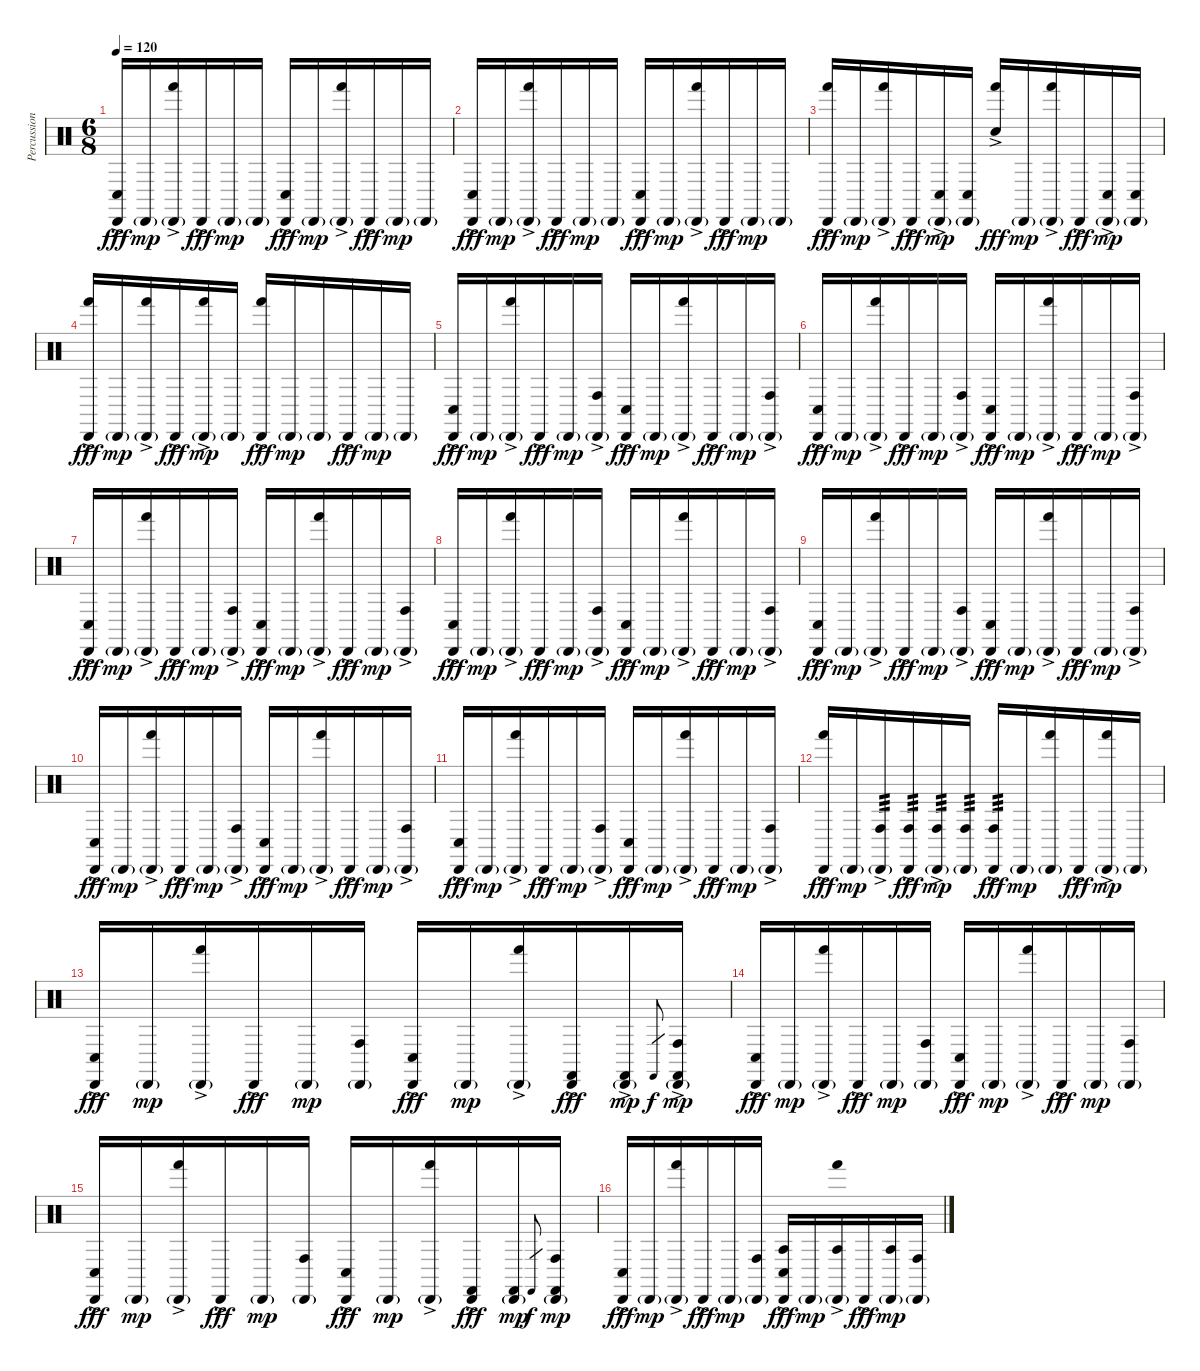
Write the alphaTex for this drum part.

\track ("Percussion" "Percussion") {instrument percussion}
\staff {score}
\articulation defaults
\ts (6 8)
\tempo 120
\clef neutral
\ks c
("Conga low (hit)"{ac} "Cabasa (hit)"{ac}).16{dy fff} "Cabasa (hit)"{g}.16{dy mp} ("Hand (hit)"{ac} "Cabasa (hit)"{g}).16 "Cabasa (hit)"{ac}.16{dy fff} "Cabasa (hit)"{g}.16{dy mp} "Cabasa (hit)"{g}.16 ("Conga low (hit)"{ac} "Cabasa (hit)"{ac}).16{dy fff} "Cabasa (hit)"{g}.16{dy mp} ("Hand (hit)"{ac} "Cabasa (hit)"{g}).16 "Cabasa (hit)"{ac}.16{dy fff} "Cabasa (hit)"{g}.16{dy mp} "Cabasa (hit)"{g}.16 |
("Conga low (hit)"{ac} "Cabasa (hit)"{ac}).16{dy fff} "Cabasa (hit)"{g}.16{dy mp} ("Hand (hit)"{ac} "Cabasa (hit)"{g}).16 "Cabasa (hit)"{ac}.16{dy fff} "Cabasa (hit)"{g}.16{dy mp} "Cabasa (hit)"{g}.16 ("Conga low (hit)"{ac} "Cabasa (hit)"{ac}).16{dy fff} "Cabasa (hit)"{g}.16{dy mp} ("Hand (hit)"{ac} "Cabasa (hit)"{g}).16 "Cabasa (hit)"{ac}.16{dy fff} "Cabasa (hit)"{g}.16{dy mp} "Cabasa (hit)"{g}.16 |
("Hand (hit)"{ac} "Cabasa (hit)"{ac}).16{dy fff} "Cabasa (hit)"{g}.16{dy mp} ("Hand (hit)"{ac} "Cabasa (hit)"{g}).16 "Cabasa (hit)"{ac}.16{dy fff} ("Conga low (hit)"{ac} "Cabasa (hit)"{g}).16{dy mp} ("Conga low (hit)" "Cabasa (hit)"{g}).16 ("Hand (hit)"{ac} "Snare (hit)"{ac}).16{dy fff} "Cabasa (hit)"{g}.16{dy mp} ("Hand (hit)"{ac} "Cabasa (hit)"{g}).16 "Cabasa (hit)"{ac}.16{dy fff} ("Conga low (hit)"{ac} "Cabasa (hit)"{g}).16{dy mp} ("Conga low (hit)" "Cabasa (hit)"{g}).16 |
("Hand (hit)"{ac} "Cabasa (hit)"{ac}).16{dy fff} "Cabasa (hit)"{g}.16{dy mp} ("Hand (hit)"{ac} "Cabasa (hit)"{g}).16 "Cabasa (hit)"{ac}.16{dy fff} ("Hand (hit)"{ac} "Cabasa (hit)"{g}).16{dy mp} "Cabasa (hit)"{g}.16 ("Hand (hit)"{ac} "Cabasa (hit)"{ac}).16{dy fff} "Cabasa (hit)"{g}.16{dy mp} "Cabasa (hit)"{g}.16 "Cabasa (hit)"{ac}.16{dy fff} "Cabasa (hit)"{g}.16{dy mp} "Cabasa (hit)"{g}.16 |
("Conga low (hit)"{ac} "Cabasa (hit)"{ac}).16{dy fff} "Cabasa (hit)"{g}.16{dy mp} ("Hand (hit)"{ac} "Cabasa (hit)"{g}).16 "Cabasa (hit)"{ac}.16{dy fff} "Cabasa (hit)"{g}.16{dy mp} ("Conga high (hit)"{ac} "Cabasa (hit)"{g}).16 ("Conga low (hit)"{ac} "Cabasa (hit)"{ac}).16{dy fff} "Cabasa (hit)"{g}.16{dy mp} ("Hand (hit)"{ac} "Cabasa (hit)"{g}).16 "Cabasa (hit)"{ac}.16{dy fff} "Cabasa (hit)"{g}.16{dy mp} ("Conga high (hit)"{ac} "Cabasa (hit)"{g}).16 |
("Conga low (hit)"{ac} "Cabasa (hit)"{ac}).16{dy fff} "Cabasa (hit)"{g}.16{dy mp} ("Hand (hit)"{ac} "Cabasa (hit)"{g}).16 "Cabasa (hit)"{ac}.16{dy fff} "Cabasa (hit)"{g}.16{dy mp} ("Conga high (hit)"{ac} "Cabasa (hit)"{g}).16 ("Conga low (hit)"{ac} "Cabasa (hit)"{ac}).16{dy fff} "Cabasa (hit)"{g}.16{dy mp} ("Hand (hit)"{ac} "Cabasa (hit)"{g}).16 "Cabasa (hit)"{ac}.16{dy fff} "Cabasa (hit)"{g}.16{dy mp} ("Conga high (hit)"{ac} "Cabasa (hit)"{g}).16 |
("Conga low (hit)"{ac} "Cabasa (hit)"{ac}).16{dy fff} "Cabasa (hit)"{g}.16{dy mp} ("Hand (hit)"{ac} "Cabasa (hit)"{g}).16 "Cabasa (hit)"{ac}.16{dy fff} "Cabasa (hit)"{g}.16{dy mp} ("Conga high (hit)"{ac} "Cabasa (hit)"{g}).16 ("Conga low (hit)"{ac} "Cabasa (hit)"{ac}).16{dy fff} "Cabasa (hit)"{g}.16{dy mp} ("Hand (hit)"{ac} "Cabasa (hit)"{g}).16 "Cabasa (hit)"{ac}.16{dy fff} "Cabasa (hit)"{g}.16{dy mp} ("Conga high (hit)"{ac} "Cabasa (hit)"{g}).16 |
("Conga low (hit)"{ac} "Cabasa (hit)"{ac}).16{dy fff} "Cabasa (hit)"{g}.16{dy mp} ("Hand (hit)"{ac} "Cabasa (hit)"{g}).16 "Cabasa (hit)"{ac}.16{dy fff} "Cabasa (hit)"{g}.16{dy mp} ("Conga high (hit)"{ac} "Cabasa (hit)"{g}).16 ("Conga low (hit)"{ac} "Cabasa (hit)"{ac}).16{dy fff} "Cabasa (hit)"{g}.16{dy mp} ("Hand (hit)"{ac} "Cabasa (hit)"{g}).16 "Cabasa (hit)"{ac}.16{dy fff} "Cabasa (hit)"{g}.16{dy mp} ("Conga high (hit)"{ac} "Cabasa (hit)"{g}).16 |
("Conga low (hit)"{ac} "Cabasa (hit)"{ac}).16{dy fff} "Cabasa (hit)"{g}.16{dy mp} ("Hand (hit)"{ac} "Cabasa (hit)"{g}).16 "Cabasa (hit)"{ac}.16{dy fff} "Cabasa (hit)"{g}.16{dy mp} ("Conga high (hit)"{ac} "Cabasa (hit)"{g}).16 ("Conga low (hit)"{ac} "Cabasa (hit)"{ac}).16{dy fff} "Cabasa (hit)"{g}.16{dy mp} ("Hand (hit)"{ac} "Cabasa (hit)"{g}).16 "Cabasa (hit)"{ac}.16{dy fff} "Cabasa (hit)"{g}.16{dy mp} ("Conga high (hit)"{ac} "Cabasa (hit)"{g}).16 |
("Conga low (hit)"{ac} "Cabasa (hit)"{ac}).16{dy fff} "Cabasa (hit)"{g}.16{dy mp} ("Hand (hit)"{ac} "Cabasa (hit)"{g}).16 "Cabasa (hit)"{ac}.16{dy fff} "Cabasa (hit)"{g}.16{dy mp} ("Conga high (hit)"{ac} "Cabasa (hit)"{g}).16 ("Conga low (hit)"{ac} "Cabasa (hit)"{ac}).16{dy fff} "Cabasa (hit)"{g}.16{dy mp} ("Hand (hit)"{ac} "Cabasa (hit)"{g}).16 "Cabasa (hit)"{ac}.16{dy fff} "Cabasa (hit)"{g}.16{dy mp} ("Conga high (hit)"{ac} "Cabasa (hit)"{g}).16 |
("Conga low (hit)"{ac} "Cabasa (hit)"{ac}).16{dy fff} "Cabasa (hit)"{g}.16{dy mp} ("Hand (hit)"{ac} "Cabasa (hit)"{g}).16 "Cabasa (hit)"{ac}.16{dy fff} "Cabasa (hit)"{g}.16{dy mp} ("Conga high (hit)"{ac} "Cabasa (hit)"{g}).16 ("Conga low (hit)"{ac} "Cabasa (hit)"{ac}).16{dy fff} "Cabasa (hit)"{g}.16{dy mp} ("Hand (hit)"{ac} "Cabasa (hit)"{g}).16 "Cabasa (hit)"{ac}.16{dy fff} "Cabasa (hit)"{g}.16{dy mp} ("Conga high (hit)"{ac} "Cabasa (hit)"{g}).16 |
("Hand (hit)"{ac} "Cabasa (hit)"{ac}).16{dy fff} "Cabasa (hit)"{g}.16{dy mp} ("Conga high (hit)"{ac} "Cabasa (hit)"{g}).16{tp 3} ("Conga high (hit)" "Cabasa (hit)"{ac}).16{tp 3 dy fff} ("Conga high (hit)"{ac} "Cabasa (hit)"{g}).16{tp 3 dy mp} ("Conga high (hit)" "Cabasa (hit)"{g}).16{tp 3} ("Conga high (hit)"{ac} "Cabasa (hit)"{ac}).16{tp 3 dy fff} "Cabasa (hit)"{g}.16{dy mp} ("Hand (hit)" "Cabasa (hit)"{g}).16 "Cabasa (hit)"{ac}.16{dy fff} ("Hand (hit)"{ac} "Cabasa (hit)"{g}).16{dy mp} "Cabasa (hit)"{g}.16 |
("Conga low (hit)"{ac} "Cabasa (hit)"{ac}).16{dy fff} "Cabasa (hit)"{g}.16{dy mp} ("Hand (hit)"{ac} "Cabasa (hit)"{g}).16 "Cabasa (hit)"{ac}.16{dy fff} "Cabasa (hit)"{g}.16{dy mp} ("Conga high (hit)" "Cabasa (hit)"{g}).16 ("Conga low (hit)"{ac} "Cabasa (hit)"{ac}).16{dy fff} "Cabasa (hit)"{g}.16{dy mp} ("Hand (hit)"{ac} "Cabasa (hit)"{g}).16 ("Castanets (hit)" "Cabasa (hit)"{ac}).16{dy fff} ("Castanets (hit)"{ac} "Cabasa (hit)"{g}).16{dy mp} "Castanets (hit)".8{gr dy f} ("Castanets (hit)"{ac} "Conga high (hit)" "Cabasa (hit)"{g}).16{dy mp} |
("Conga low (hit)"{ac} "Cabasa (hit)"{ac}).16{dy fff} "Cabasa (hit)"{g}.16{dy mp} ("Hand (hit)"{ac} "Cabasa (hit)"{g}).16 "Cabasa (hit)"{ac}.16{dy fff} "Cabasa (hit)"{g}.16{dy mp} ("Conga high (hit)" "Cabasa (hit)"{g}).16 ("Conga low (hit)"{ac} "Cabasa (hit)"{ac}).16{dy fff} "Cabasa (hit)"{g}.16{dy mp} ("Hand (hit)"{ac} "Cabasa (hit)"{g}).16 "Cabasa (hit)"{ac}.16{dy fff} "Cabasa (hit)"{g}.16{dy mp} ("Conga high (hit)" "Cabasa (hit)"{g}).16 |
("Conga low (hit)"{ac} "Cabasa (hit)"{ac}).16{dy fff} "Cabasa (hit)"{g}.16{dy mp} ("Hand (hit)"{ac} "Cabasa (hit)"{g}).16 "Cabasa (hit)"{ac}.16{dy fff} "Cabasa (hit)"{g}.16{dy mp} ("Conga high (hit)" "Cabasa (hit)"{g}).16 ("Conga low (hit)"{ac} "Cabasa (hit)"{ac}).16{dy fff} "Cabasa (hit)"{g}.16{dy mp} ("Hand (hit)"{ac} "Cabasa (hit)"{g}).16 ("Castanets (hit)" "Cabasa (hit)"{ac}).16{dy fff} ("Castanets (hit)" "Cabasa (hit)"{g}).16{dy mp} "Castanets (hit)".8{gr dy f} ("Castanets (hit)" "Conga high (hit)" "Cabasa (hit)"{g}).16{dy mp} |
("Conga low (hit)"{ac} "Cabasa (hit)"{ac}).16{dy fff} "Cabasa (hit)"{g}.16{dy mp} ("Hand (hit)"{ac} "Cabasa (hit)"{g}).16 "Cabasa (hit)"{ac}.16{dy fff} "Cabasa (hit)"{g}.16{dy mp} ("Conga high (hit)" "Cabasa (hit)"{g}).16 ("Agogo tow (hit)" "Conga low (hit)"{ac} "Cabasa (hit)"{ac}).16{dy fff} "Cabasa (hit)"{g}.16{dy mp} ("Agogo tow (hit)" "Hand (hit)"{ac} "Cabasa (hit)"{g}).16 "Cabasa (hit)"{ac}.16{dy fff} ("Agogo tow (hit)" "Cabasa (hit)"{g}).16{dy mp} ("Conga high (hit)" "Cabasa (hit)"{g}).16
